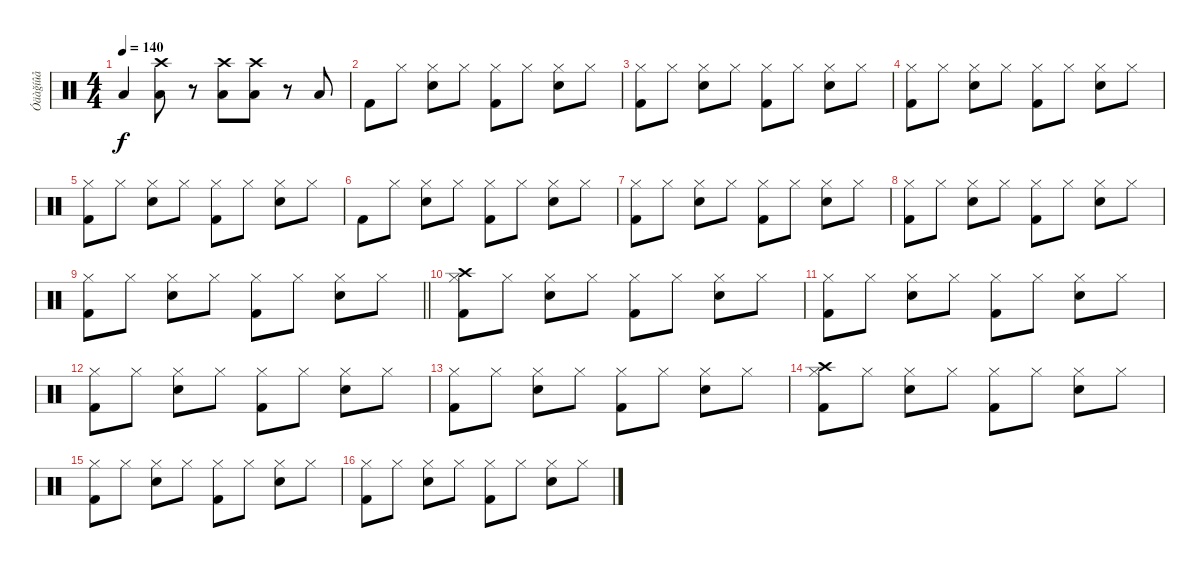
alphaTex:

\track ("Óäàğíûå" "Óäàğíûå") {instrument percussion}
\staff {score}
\articulation defaults
\ts (4 4)
\tempo 140
\clef neutral
\ks c "Low Tom (hit)".4{dy f}
("Crash high (hit)" "Low Tom (hit)").8 r.8 ("Crash high (hit)" "Low Tom (hit)").8 ("Crash high (hit)" "Low Tom (hit)").8 r.8 "Low Tom (hit)".8 |
"Kick (hit) 2".8 "Hi-Hat (closed)".8 ("Hi-Hat (closed)" "Snare (hit) 2").8 "Hi-Hat (closed)".8 ("Hi-Hat (closed)" "Kick (hit) 2").8 "Hi-Hat (closed)".8 ("Hi-Hat (closed)" "Snare (hit) 2").8 "Hi-Hat (closed)".8 |
("Hi-Hat (closed)" "Kick (hit) 2").8 "Hi-Hat (closed)".8 ("Hi-Hat (closed)" "Snare (hit) 2").8 "Hi-Hat (closed)".8 ("Hi-Hat (closed)" "Kick (hit) 2").8 "Hi-Hat (closed)".8 ("Hi-Hat (closed)" "Snare (hit) 2").8 "Hi-Hat (closed)".8 |
("Hi-Hat (closed)" "Kick (hit) 2").8 "Hi-Hat (closed)".8 ("Hi-Hat (closed)" "Snare (hit) 2").8 "Hi-Hat (closed)".8 ("Hi-Hat (closed)" "Kick (hit) 2").8 "Hi-Hat (closed)".8 ("Hi-Hat (closed)" "Snare (hit) 2").8 "Hi-Hat (closed)".8 |
("Hi-Hat (closed)" "Kick (hit) 2").8 "Hi-Hat (closed)".8 ("Hi-Hat (closed)" "Snare (hit) 2").8 "Hi-Hat (closed)".8 ("Hi-Hat (closed)" "Kick (hit) 2").8 "Hi-Hat (closed)".8 ("Hi-Hat (closed)" "Snare (hit) 2").8 "Hi-Hat (closed)".8 |
"Kick (hit) 2".8 "Hi-Hat (closed)".8 ("Hi-Hat (closed)" "Snare (hit) 2").8 "Hi-Hat (closed)".8 ("Hi-Hat (closed)" "Kick (hit) 2").8 "Hi-Hat (closed)".8 ("Hi-Hat (closed)" "Snare (hit) 2").8 "Hi-Hat (closed)".8 |
("Hi-Hat (closed)" "Kick (hit) 2").8 "Hi-Hat (closed)".8 ("Hi-Hat (closed)" "Snare (hit) 2").8 "Hi-Hat (closed)".8 ("Hi-Hat (closed)" "Kick (hit) 2").8 "Hi-Hat (closed)".8 ("Hi-Hat (closed)" "Snare (hit) 2").8 "Hi-Hat (closed)".8 |
("Hi-Hat (closed)" "Kick (hit) 2").8 "Hi-Hat (closed)".8 ("Hi-Hat (closed)" "Snare (hit) 2").8 "Hi-Hat (closed)".8 ("Hi-Hat (closed)" "Kick (hit) 2").8 "Hi-Hat (closed)".8 ("Hi-Hat (closed)" "Snare (hit) 2").8 "Hi-Hat (closed)".8 |
\barLineRight lightlight
("Hi-Hat (closed)" "Kick (hit) 2").8 "Hi-Hat (closed)".8 ("Hi-Hat (closed)" "Snare (hit) 2").8 "Hi-Hat (closed)".8 ("Hi-Hat (closed)" "Kick (hit) 2").8 "Hi-Hat (closed)".8 ("Hi-Hat (closed)" "Snare (hit) 2").8 "Hi-Hat (closed)".8 |
("Hi-Hat (closed)" "Kick (hit) 2" "Crash high (hit)").8 "Hi-Hat (closed)".8 ("Hi-Hat (closed)" "Snare (hit) 2").8 "Hi-Hat (closed)".8 ("Hi-Hat (closed)" "Kick (hit) 2").8 "Hi-Hat (closed)".8 ("Hi-Hat (closed)" "Snare (hit) 2").8 "Hi-Hat (closed)".8 |
("Hi-Hat (closed)" "Kick (hit) 2").8 "Hi-Hat (closed)".8 ("Hi-Hat (closed)" "Snare (hit) 2").8 "Hi-Hat (closed)".8 ("Hi-Hat (closed)" "Kick (hit) 2").8 "Hi-Hat (closed)".8 ("Hi-Hat (closed)" "Snare (hit) 2").8 "Hi-Hat (closed)".8 |
("Hi-Hat (closed)" "Kick (hit) 2").8 "Hi-Hat (closed)".8 ("Hi-Hat (closed)" "Snare (hit) 2").8 "Hi-Hat (closed)".8 ("Hi-Hat (closed)" "Kick (hit) 2").8 "Hi-Hat (closed)".8 ("Hi-Hat (closed)" "Snare (hit) 2").8 "Hi-Hat (closed)".8 |
("Hi-Hat (closed)" "Kick (hit) 2").8 "Hi-Hat (closed)".8 ("Hi-Hat (closed)" "Snare (hit) 2").8 "Hi-Hat (closed)".8 ("Hi-Hat (closed)" "Kick (hit) 2").8 "Hi-Hat (closed)".8 ("Hi-Hat (closed)" "Snare (hit) 2").8 "Hi-Hat (closed)".8 |
("Hi-Hat (closed)" "Kick (hit) 2" "Crash high (hit)").8 "Hi-Hat (closed)".8 ("Hi-Hat (closed)" "Snare (hit) 2").8 "Hi-Hat (closed)".8 ("Hi-Hat (closed)" "Kick (hit) 2").8 "Hi-Hat (closed)".8 ("Hi-Hat (closed)" "Snare (hit) 2").8 "Hi-Hat (closed)".8 |
("Hi-Hat (closed)" "Kick (hit) 2").8 "Hi-Hat (closed)".8 ("Hi-Hat (closed)" "Snare (hit) 2").8 "Hi-Hat (closed)".8 ("Hi-Hat (closed)" "Kick (hit) 2").8 "Hi-Hat (closed)".8 ("Hi-Hat (closed)" "Snare (hit) 2").8 "Hi-Hat (closed)".8 |
("Hi-Hat (closed)" "Kick (hit) 2").8 "Hi-Hat (closed)".8 ("Hi-Hat (closed)" "Snare (hit) 2").8 "Hi-Hat (closed)".8 ("Hi-Hat (closed)" "Kick (hit) 2").8 "Hi-Hat (closed)".8 ("Hi-Hat (closed)" "Snare (hit) 2").8 "Hi-Hat (closed)".8
